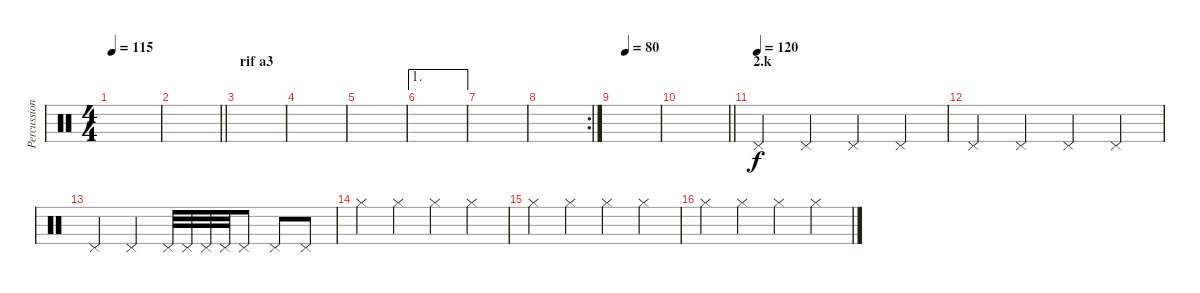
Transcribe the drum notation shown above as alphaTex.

\track ("Percussion" "Percussion") {instrument percussion}
\staff {score}
\articulation defaults
\ts (4 4)
\tempo 115
\clef neutral
\ks c
|
\barLineRight lightlight
|
\section ("" "rif a3")
|
|
|
\ae 1
|
|
\rc 2
|
\tempo (80 0.25)
|
\barLineRight lightlight
|
\section ("" "2.k")
\tempo (120)
"Pedal Hi-Hat (hit)".4 "Pedal Hi-Hat (hit)".4 "Pedal Hi-Hat (hit)".4 "Pedal Hi-Hat (hit)".4 |
"Pedal Hi-Hat (hit)".4 "Pedal Hi-Hat (hit)".4 "Pedal Hi-Hat (hit)".4 "Pedal Hi-Hat (hit)".4 |
"Pedal Hi-Hat (hit)".4 "Pedal Hi-Hat (hit)".4 "Pedal Hi-Hat (hit)".32 "Pedal Hi-Hat (hit)".32 "Pedal Hi-Hat (hit)".32 "Pedal Hi-Hat (hit)".32 "Pedal Hi-Hat (hit)".8 "Pedal Hi-Hat (hit)".8 "Pedal Hi-Hat (hit)".8 |
"Hi-Hat (closed)".4 "Hi-Hat (closed)".4 "Hi-Hat (closed)".4 "Hi-Hat (closed)".4 |
"Hi-Hat (closed)".4 "Hi-Hat (closed)".4 "Hi-Hat (closed)".4 "Hi-Hat (closed)".4 |
"Hi-Hat (closed)".4 "Hi-Hat (closed)".4 "Hi-Hat (closed)".4 "Hi-Hat (closed)".4
